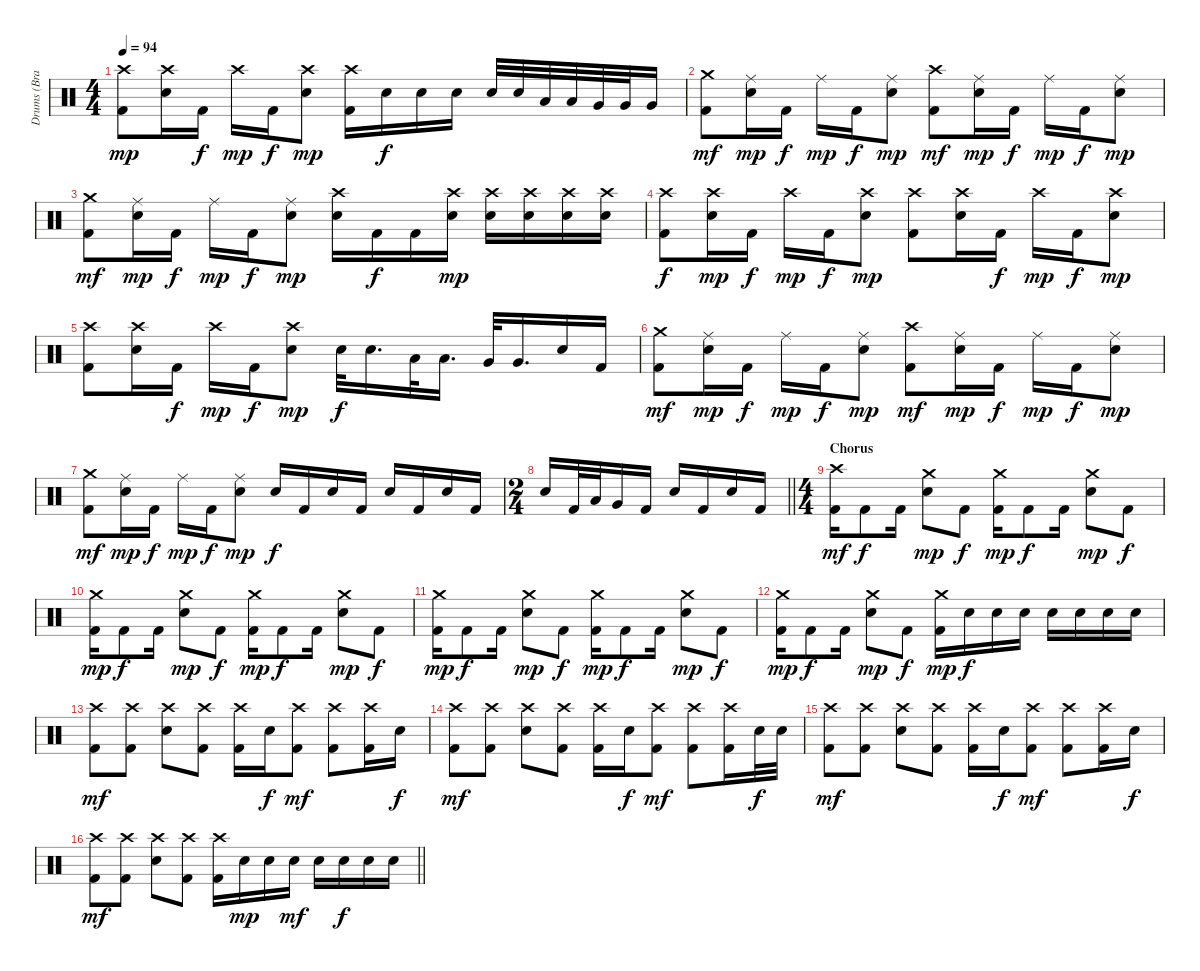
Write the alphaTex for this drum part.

\track ("Drums (Brandon Saller)" "Drums (Bra") {instrument percussion}
\staff {score}
\articulation defaults
\ts (4 4)
\tempo 94
\clef neutral
\ks c
("Crash high (hit)" "Kick (hit) 2").8{dy mp} ("Crash high (hit)" "Electric Snare (hit)").16 "Kick (hit) 2".16{dy f} "Crash high (hit)".16{dy mp} "Kick (hit) 2".16{dy f} ("Crash high (hit)" "Electric Snare (hit)").8{dy mp} ("Crash high (hit)" "Kick (hit) 2").16 "Electric Snare (hit)".16{dy f} "Electric Snare (hit)".16 "Electric Snare (hit)".16 "Electric Snare (hit)".32 "Electric Snare (hit)".32 "Low Tom (hit)".32 "Low Tom (hit)".32 "Very Low Tom (hit)".32 "Very Low Tom (hit)".32 "Very Low Tom (hit)".16 |
("Crash medium (hit)" "Kick (hit) 2").8{dy mf} ("Ride (middle)" "Electric Snare (hit)").16{dy mp} "Kick (hit) 2".16{dy f} "Ride (middle)".16{dy mp} "Kick (hit) 2".16{dy f} ("Ride (middle)" "Electric Snare (hit)").8{dy mp} ("Crash high (hit)" "Kick (hit) 2").8{dy mf} ("Ride (middle)" "Electric Snare (hit)").16{dy mp} "Kick (hit) 2".16{dy f} "Ride (middle)".16{dy mp} "Kick (hit) 2".16{dy f} ("Ride (middle)" "Electric Snare (hit)").8{dy mp} |
("Crash medium (hit)" "Kick (hit) 2").8{dy mf} ("Ride (middle)" "Electric Snare (hit)").16{dy mp} "Kick (hit) 2".16{dy f} "Ride (middle)".16{dy mp} "Kick (hit) 2".16{dy f} ("Ride (middle)" "Electric Snare (hit)").8{dy mp} ("Crash high (hit)" "Electric Snare (hit)").16 "Kick (hit) 2".16{dy f} "Kick (hit) 2".16 ("Crash high (hit)" "Electric Snare (hit)").16{dy mp} ("Crash high (hit)" "Electric Snare (hit)").16 ("Crash high (hit)" "Electric Snare (hit)").16 ("Crash high (hit)" "Electric Snare (hit)").16 ("Crash high (hit)" "Electric Snare (hit)").16 |
("Crash high (hit)" "Kick (hit) 2").8{dy f} ("Crash high (hit)" "Electric Snare (hit)").16{dy mp} "Kick (hit) 2".16{dy f} "Crash high (hit)".16{dy mp} "Kick (hit) 2".16{dy f} ("Crash high (hit)" "Electric Snare (hit)").8{dy mp} ("Crash high (hit)" "Kick (hit) 2").8 ("Crash high (hit)" "Electric Snare (hit)").16 "Kick (hit) 2".16{dy f} "Crash high (hit)".16{dy mp} "Kick (hit) 2".16{dy f} ("Crash high (hit)" "Electric Snare (hit)").8{dy mp} |
("Crash high (hit)" "Kick (hit) 2").8 ("Crash high (hit)" "Electric Snare (hit)").16 "Kick (hit) 2".16{dy f} "Crash high (hit)".16{dy mp} "Kick (hit) 2".16{dy f} ("Crash high (hit)" "Electric Snare (hit)").8{dy mp} "Electric Snare (hit)".32{dy f} "Electric Snare (hit)".16{d} "Low Tom (hit)".32 "Low Tom (hit)".16{d} "Very Low Tom (hit)".32 "Very Low Tom (hit)".16{d} "Electric Snare (hit)".16 "Kick (hit) 2".16 |
("Crash medium (hit)" "Kick (hit) 2").8{dy mf} ("Ride (middle)" "Electric Snare (hit)").16{dy mp} "Kick (hit) 2".16{dy f} "Ride (middle)".16{dy mp} "Kick (hit) 2".16{dy f} ("Ride (middle)" "Electric Snare (hit)").8{dy mp} ("Crash high (hit)" "Kick (hit) 2").8{dy mf} ("Ride (middle)" "Electric Snare (hit)").16{dy mp} "Kick (hit) 2".16{dy f} "Ride (middle)".16{dy mp} "Kick (hit) 2".16{dy f} ("Ride (middle)" "Electric Snare (hit)").8{dy mp} |
("Crash medium (hit)" "Kick (hit) 2").8{dy mf} ("Ride (middle)" "Electric Snare (hit)").16{dy mp} "Kick (hit) 2".16{dy f} "Ride (middle)".16{dy mp} "Kick (hit) 2".16{dy f} ("Ride (middle)" "Electric Snare (hit)").8{dy mp} "Electric Snare (hit)".16{dy f} "Kick (hit) 2".16 "Electric Snare (hit)".16 "Kick (hit) 2".16 "Electric Snare (hit)".16 "Kick (hit) 2".16 "Electric Snare (hit)".16 "Kick (hit) 2".16 |
\ts (2 4)
\barLineRight lightlight "Electric Snare (hit)".16 "Kick (hit) 2".32 "Low Tom (hit)".32 "Very Low Tom (hit)".16 "Kick (hit) 2".16 "Electric Snare (hit)".16 "Kick (hit) 2".16 "Electric Snare (hit)".16 "Kick (hit) 2".16
|
\ts (4 4)
\section ("" "Chorus")
("Crash high (hit)" "Kick (hit) 2").16{dy mf} "Kick (hit) 2".8{dy f} "Kick (hit) 2".16 ("Crash medium (hit)" "Electric Snare (hit)").8{dy mp} "Kick (hit) 2".8{dy f} ("Crash medium (hit)" "Kick (hit) 2").16{dy mp} "Kick (hit) 2".8{dy f} "Kick (hit) 2".16 ("Crash medium (hit)" "Electric Snare (hit)").8{dy mp} "Kick (hit) 2".8{dy f} |
("Crash medium (hit)" "Kick (hit) 2").16{dy mp} "Kick (hit) 2".8{dy f} "Kick (hit) 2".16 ("Crash medium (hit)" "Electric Snare (hit)").8{dy mp} "Kick (hit) 2".8{dy f} ("Crash medium (hit)" "Kick (hit) 2").16{dy mp} "Kick (hit) 2".8{dy f} "Kick (hit) 2".16 ("Crash medium (hit)" "Electric Snare (hit)").8{dy mp} "Kick (hit) 2".8{dy f} |
("Crash medium (hit)" "Kick (hit) 2").16{dy mp} "Kick (hit) 2".8{dy f} "Kick (hit) 2".16 ("Crash medium (hit)" "Electric Snare (hit)").8{dy mp} "Kick (hit) 2".8{dy f} ("Crash medium (hit)" "Kick (hit) 2").16{dy mp} "Kick (hit) 2".8{dy f} "Kick (hit) 2".16 ("Crash medium (hit)" "Electric Snare (hit)").8{dy mp} "Kick (hit) 2".8{dy f} |
("Crash medium (hit)" "Kick (hit) 2").16{dy mp} "Kick (hit) 2".8{dy f} "Kick (hit) 2".16 ("Crash medium (hit)" "Electric Snare (hit)").8{dy mp} "Kick (hit) 2".8{dy f} ("Crash medium (hit)" "Kick (hit) 2").16{dy mp} "Electric Snare (hit)".16{dy f} "Electric Snare (hit)".16 "Electric Snare (hit)".16 "Electric Snare (hit)".16 "Electric Snare (hit)".16 "Electric Snare (hit)".16 "Electric Snare (hit)".16 |
("Crash high (hit)" "Kick (hit) 2").8{dy mf} ("Crash high (hit)" "Kick (hit) 2").8 ("Crash high (hit)" "Electric Snare (hit)").8 ("Crash high (hit)" "Kick (hit) 2").8 ("Crash high (hit)" "Kick (hit) 2").16 "Electric Snare (hit)".16{dy f} ("Crash high (hit)" "Kick (hit) 2").8{dy mf} ("Crash high (hit)" "Kick (hit) 2").8 ("Crash high (hit)" "Kick (hit) 2").16 "Electric Snare (hit)".16{dy f} |
("Crash high (hit)" "Kick (hit) 2").8{dy mf} ("Crash high (hit)" "Kick (hit) 2").8 ("Crash high (hit)" "Electric Snare (hit)").8 ("Crash high (hit)" "Kick (hit) 2").8 ("Crash high (hit)" "Kick (hit) 2").16 "Electric Snare (hit)".16{dy f} ("Crash high (hit)" "Kick (hit) 2").8{dy mf} ("Crash high (hit)" "Kick (hit) 2").8 ("Crash high (hit)" "Kick (hit) 2").16 "Electric Snare (hit)".32{dy f} "Electric Snare (hit)".32 |
("Crash high (hit)" "Kick (hit) 2").8{dy mf} ("Crash high (hit)" "Kick (hit) 2").8 ("Crash high (hit)" "Electric Snare (hit)").8 ("Crash high (hit)" "Kick (hit) 2").8 ("Crash high (hit)" "Kick (hit) 2").16 "Electric Snare (hit)".16{dy f} ("Crash high (hit)" "Kick (hit) 2").8{dy mf} ("Crash high (hit)" "Kick (hit) 2").8 ("Crash high (hit)" "Kick (hit) 2").16 "Electric Snare (hit)".16{dy f} |
\barLineRight lightlight
("Crash high (hit)" "Kick (hit) 2").8{dy mf} ("Crash high (hit)" "Kick (hit) 2").8 ("Crash high (hit)" "Electric Snare (hit)").8 ("Crash high (hit)" "Kick (hit) 2").8 ("Crash high (hit)" "Kick (hit) 2").16 "Electric Snare (hit)".16{dy mp} "Electric Snare (hit)".16 "Electric Snare (hit)".16{dy mf} "Electric Snare (hit)".16 "Electric Snare (hit)".16{dy f} "Electric Snare (hit)".16 "Electric Snare (hit)".16
